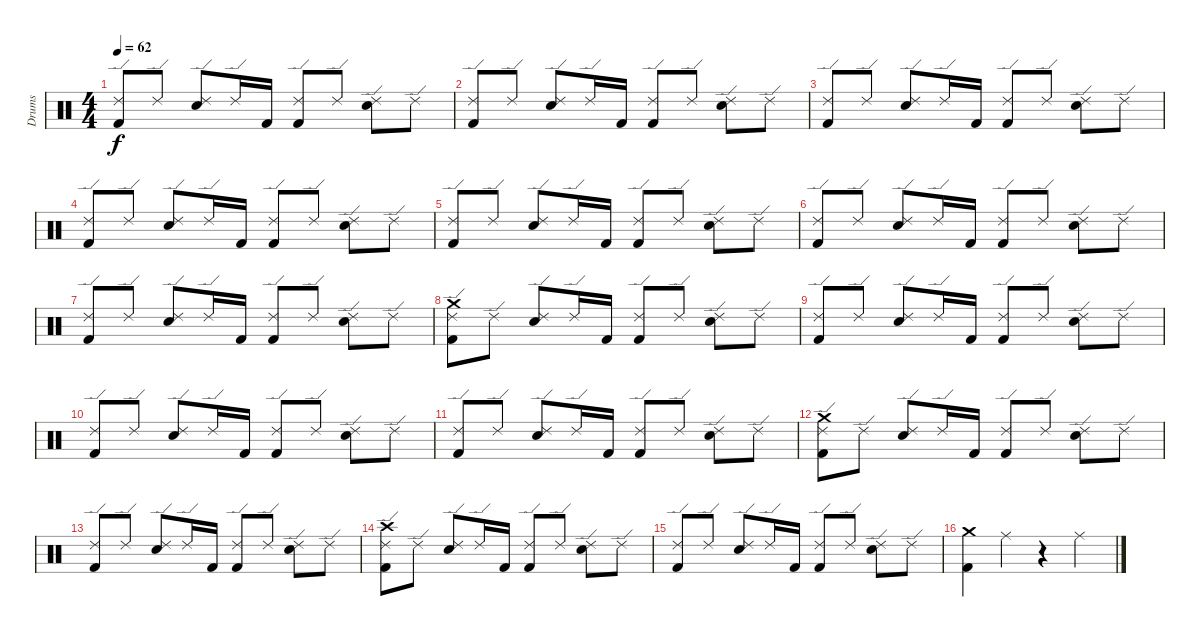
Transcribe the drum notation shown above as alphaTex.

\track ("Drums" "Drums") {instrument percussion}
\staff {score}
\articulation defaults
\ts (4 4)
\tempo 62
\clef neutral
\ks c
("Ride (edge) 2" "Kick (hit) 2").8{dy f} "Ride (edge) 2".8 ("Ride (edge) 2" "Electric Snare (hit)").8 "Ride (edge) 2".16 "Kick (hit) 2".16 ("Ride (edge) 2" "Kick (hit) 2").8 "Ride (edge) 2".8 ("Ride (edge) 2" "Electric Snare (hit)").8 "Ride (edge) 2".8 |
("Ride (edge) 2" "Kick (hit) 2").8 "Ride (edge) 2".8 ("Ride (edge) 2" "Electric Snare (hit)").8 "Ride (edge) 2".16 "Kick (hit) 2".16 ("Ride (edge) 2" "Kick (hit) 2").8 "Ride (edge) 2".8 ("Ride (edge) 2" "Electric Snare (hit)").8 "Ride (edge) 2".8 |
("Ride (edge) 2" "Kick (hit) 2").8 "Ride (edge) 2".8 ("Ride (edge) 2" "Electric Snare (hit)").8 "Ride (edge) 2".16 "Kick (hit) 2".16 ("Ride (edge) 2" "Kick (hit) 2").8 "Ride (edge) 2".8 ("Ride (edge) 2" "Electric Snare (hit)").8 "Ride (edge) 2".8 |
("Ride (edge) 2" "Kick (hit) 2").8 "Ride (edge) 2".8 ("Ride (edge) 2" "Electric Snare (hit)").8 "Ride (edge) 2".16 "Kick (hit) 2".16 ("Ride (edge) 2" "Kick (hit) 2").8 "Ride (edge) 2".8 ("Ride (edge) 2" "Electric Snare (hit)").8 "Ride (edge) 2".8 |
("Ride (edge) 2" "Kick (hit) 2").8 "Ride (edge) 2".8 ("Ride (edge) 2" "Electric Snare (hit)").8 "Ride (edge) 2".16 "Kick (hit) 2".16 ("Ride (edge) 2" "Kick (hit) 2").8 "Ride (edge) 2".8 ("Ride (edge) 2" "Electric Snare (hit)").8 "Ride (edge) 2".8 |
("Ride (edge) 2" "Kick (hit) 2").8 "Ride (edge) 2".8 ("Ride (edge) 2" "Electric Snare (hit)").8 "Ride (edge) 2".16 "Kick (hit) 2".16 ("Ride (edge) 2" "Kick (hit) 2").8 "Ride (edge) 2".8 ("Ride (edge) 2" "Electric Snare (hit)").8 "Ride (edge) 2".8 |
("Ride (edge) 2" "Kick (hit) 2").8 "Ride (edge) 2".8 ("Ride (edge) 2" "Electric Snare (hit)").8 "Ride (edge) 2".16 "Kick (hit) 2".16 ("Ride (edge) 2" "Kick (hit) 2").8 "Ride (edge) 2".8 ("Ride (edge) 2" "Electric Snare (hit)").8 "Ride (edge) 2".8 |
("Crash medium (hit)" "Ride (edge) 2" "Kick (hit) 2").8 "Ride (edge) 2".8 ("Ride (edge) 2" "Electric Snare (hit)").8 "Ride (edge) 2".16 "Kick (hit) 2".16 ("Ride (edge) 2" "Kick (hit) 2").8 "Ride (edge) 2".8 ("Ride (edge) 2" "Electric Snare (hit)").8 "Ride (edge) 2".8 |
("Ride (edge) 2" "Kick (hit) 2").8 "Ride (edge) 2".8 ("Ride (edge) 2" "Electric Snare (hit)").8 "Ride (edge) 2".16 "Kick (hit) 2".16 ("Ride (edge) 2" "Kick (hit) 2").8 "Ride (edge) 2".8 ("Ride (edge) 2" "Electric Snare (hit)").8 "Ride (edge) 2".8 |
("Ride (edge) 2" "Kick (hit) 2").8 "Ride (edge) 2".8 ("Ride (edge) 2" "Electric Snare (hit)").8 "Ride (edge) 2".16 "Kick (hit) 2".16 ("Ride (edge) 2" "Kick (hit) 2").8 "Ride (edge) 2".8 ("Ride (edge) 2" "Electric Snare (hit)").8 "Ride (edge) 2".8 |
("Ride (edge) 2" "Kick (hit) 2").8 "Ride (edge) 2".8 ("Ride (edge) 2" "Electric Snare (hit)").8 "Ride (edge) 2".16 "Kick (hit) 2".16 ("Ride (edge) 2" "Kick (hit) 2").8 "Ride (edge) 2".8 ("Ride (edge) 2" "Electric Snare (hit)").8 "Ride (edge) 2".8 |
("Crash medium (hit)" "Ride (edge) 2" "Kick (hit) 2").8 "Ride (edge) 2".8 ("Ride (edge) 2" "Electric Snare (hit)").8 "Ride (edge) 2".16 "Kick (hit) 2".16 ("Ride (edge) 2" "Kick (hit) 2").8 "Ride (edge) 2".8 ("Ride (edge) 2" "Electric Snare (hit)").8 "Ride (edge) 2".8 |
("Ride (edge) 2" "Kick (hit) 2").8 "Ride (edge) 2".8 ("Ride (edge) 2" "Electric Snare (hit)").8 "Ride (edge) 2".16 "Kick (hit) 2".16 ("Ride (edge) 2" "Kick (hit) 2").8 "Ride (edge) 2".8 ("Ride (edge) 2" "Electric Snare (hit)").8 "Ride (edge) 2".8 |
("Crash high (hit)" "Ride (edge) 2" "Kick (hit) 2").8 "Ride (edge) 2".8 ("Ride (edge) 2" "Electric Snare (hit)").8 "Ride (edge) 2".16 "Kick (hit) 2".16 ("Ride (edge) 2" "Kick (hit) 2").8 "Ride (edge) 2".8 ("Ride (edge) 2" "Electric Snare (hit)").8 "Ride (edge) 2".8 |
("Ride (edge) 2" "Kick (hit) 2").8 "Ride (edge) 2".8 ("Ride (edge) 2" "Electric Snare (hit)").8 "Ride (edge) 2".16 "Kick (hit) 2".16 ("Ride (edge) 2" "Kick (hit) 2").8 "Ride (edge) 2".8 ("Ride (edge) 2" "Electric Snare (hit)").8 "Ride (edge) 2".8 |
("Crash medium (hit)" "Kick (hit) 2").4 "Ride (middle)".4 r.4 "Ride (middle)".4
